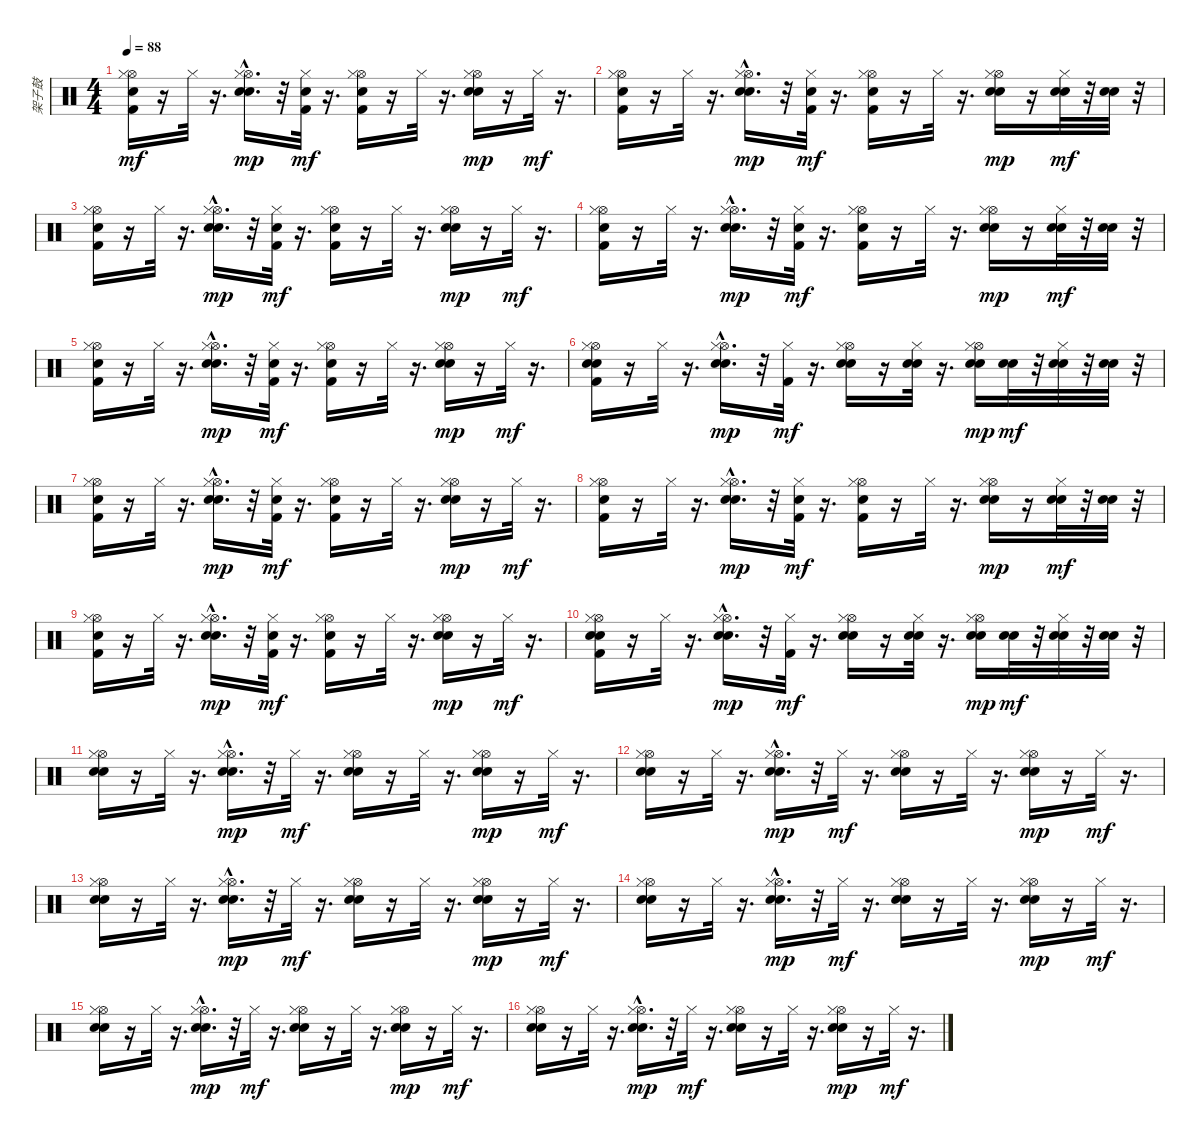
\track ("架子鼓" "架子鼓") {instrument percussion}
\staff {score}
\articulation defaults
\ts (4 4)
\tempo 88
\clef neutral
\ks c
("Hi-Hat (open)" "Hi-Hat (closed)" "Kick (hit) 2" "Snare (hit)").16{dy mf} r.16 "Hi-Hat (closed)".32 r.16{d} ("Hi-Hat (open)"{hac} "Hi-Hat (closed)" "Electric Snare (hit)" "Metronome (bell)").16{d dy mp} r.32 ("Hi-Hat (closed)" "Kick (hit) 2" "Snare (hit)").32{dy mf} r.16{d} ("Hi-Hat (open)" "Hi-Hat (closed)" "Kick (hit) 2" "Snare (hit)").16 r.16 "Hi-Hat (closed)".32 r.16{d} ("Hi-Hat (open)" "Hi-Hat (closed)" "Electric Snare (hit)" "Metronome (bell)").16{dy mp} r.16 "Hi-Hat (closed)".32{dy mf} r.16{d} |
("Hi-Hat (open)" "Hi-Hat (closed)" "Kick (hit) 2" "Snare (hit)").16 r.16 "Hi-Hat (closed)".32 r.16{d} ("Hi-Hat (open)"{hac} "Hi-Hat (closed)" "Electric Snare (hit)" "Metronome (bell)").16{d dy mp} r.32 ("Hi-Hat (closed)" "Kick (hit) 2" "Snare (hit)").32{dy mf} r.16{d} ("Hi-Hat (open)" "Hi-Hat (closed)" "Kick (hit) 2" "Snare (hit)").16 r.16 "Hi-Hat (closed)".32 r.16{d} ("Hi-Hat (open)" "Hi-Hat (closed)" "Electric Snare (hit)" "Metronome (bell)").16{dy mp} r.16 ("Hi-Hat (closed)" "Electric Snare (hit)" "Metronome (bell)").32{dy mf} r.32 ("Electric Snare (hit)" "Metronome (bell)").32 r.32 |
("Hi-Hat (open)" "Hi-Hat (closed)" "Kick (hit) 2" "Snare (hit)").16 r.16 "Hi-Hat (closed)".32 r.16{d} ("Hi-Hat (open)"{hac} "Hi-Hat (closed)" "Electric Snare (hit)" "Metronome (bell)").16{d dy mp} r.32 ("Hi-Hat (closed)" "Kick (hit) 2" "Snare (hit)").32{dy mf} r.16{d} ("Hi-Hat (open)" "Hi-Hat (closed)" "Kick (hit) 2" "Snare (hit)").16 r.16 "Hi-Hat (closed)".32 r.16{d} ("Hi-Hat (open)" "Hi-Hat (closed)" "Electric Snare (hit)" "Metronome (bell)").16{dy mp} r.16 "Hi-Hat (closed)".32{dy mf} r.16{d} |
("Hi-Hat (open)" "Hi-Hat (closed)" "Kick (hit) 2" "Snare (hit)").16 r.16 "Hi-Hat (closed)".32 r.16{d} ("Hi-Hat (open)"{hac} "Hi-Hat (closed)" "Electric Snare (hit)" "Metronome (bell)").16{d dy mp} r.32 ("Hi-Hat (closed)" "Kick (hit) 2" "Snare (hit)").32{dy mf} r.16{d} ("Hi-Hat (open)" "Hi-Hat (closed)" "Kick (hit) 2" "Snare (hit)").16 r.16 "Hi-Hat (closed)".32 r.16{d} ("Hi-Hat (open)" "Hi-Hat (closed)" "Electric Snare (hit)" "Metronome (bell)").16{dy mp} r.16 ("Hi-Hat (closed)" "Electric Snare (hit)" "Metronome (bell)").32{dy mf} r.32 ("Electric Snare (hit)" "Metronome (bell)").32 r.32 |
("Hi-Hat (open)" "Hi-Hat (closed)" "Kick (hit) 2" "Snare (hit)").16 r.16 "Hi-Hat (closed)".32 r.16{d} ("Hi-Hat (open)"{hac} "Hi-Hat (closed)" "Electric Snare (hit)" "Metronome (bell)").16{d dy mp} r.32 ("Hi-Hat (closed)" "Kick (hit) 2" "Snare (hit)").32{dy mf} r.16{d} ("Hi-Hat (open)" "Hi-Hat (closed)" "Kick (hit) 2" "Snare (hit)").16 r.16 "Hi-Hat (closed)".32 r.16{d} ("Hi-Hat (open)" "Hi-Hat (closed)" "Electric Snare (hit)" "Metronome (bell)").16{dy mp} r.16 "Hi-Hat (closed)".32{dy mf} r.16{d} |
("Hi-Hat (open)" "Hi-Hat (closed)" "Electric Snare (hit)" "Electric Snare (hit)" "Kick (hit) 2").16 r.16 "Hi-Hat (closed)".32 r.16{d} ("Hi-Hat (open)"{hac} "Hi-Hat (closed)" "Electric Snare (hit)" "Metronome (bell)").16{d dy mp} r.32 ("Hi-Hat (closed)" "Kick (hit) 2").32{dy mf} r.16{d} ("Hi-Hat (open)" "Hi-Hat (closed)" "Electric Snare (hit)" "Metronome (bell)").16 r.16 ("Hi-Hat (closed)" "Electric Snare (hit)" "Metronome (bell)").32 r.16{d} ("Hi-Hat (open)" "Hi-Hat (closed)" "Electric Snare (hit)" "Metronome (bell)").16{dy mp} ("Electric Snare (hit)" "Metronome (bell)").32{dy mf} r.32 ("Hi-Hat (closed)" "Electric Snare (hit)" "Metronome (bell)").32 r.32 ("Electric Snare (hit)" "Metronome (bell)").32 r.32 |
("Hi-Hat (open)" "Hi-Hat (closed)" "Kick (hit) 2" "Snare (hit)").16 r.16 "Hi-Hat (closed)".32 r.16{d} ("Hi-Hat (open)"{hac} "Hi-Hat (closed)" "Electric Snare (hit)" "Metronome (bell)").16{d dy mp} r.32 ("Hi-Hat (closed)" "Kick (hit) 2" "Snare (hit)").32{dy mf} r.16{d} ("Hi-Hat (open)" "Hi-Hat (closed)" "Kick (hit) 2" "Snare (hit)").16 r.16 "Hi-Hat (closed)".32 r.16{d} ("Hi-Hat (open)" "Hi-Hat (closed)" "Electric Snare (hit)" "Metronome (bell)").16{dy mp} r.16 "Hi-Hat (closed)".32{dy mf} r.16{d} |
("Hi-Hat (open)" "Hi-Hat (closed)" "Kick (hit) 2" "Snare (hit)").16 r.16 "Hi-Hat (closed)".32 r.16{d} ("Hi-Hat (open)"{hac} "Hi-Hat (closed)" "Electric Snare (hit)" "Metronome (bell)").16{d dy mp} r.32 ("Hi-Hat (closed)" "Kick (hit) 2" "Snare (hit)").32{dy mf} r.16{d} ("Hi-Hat (open)" "Hi-Hat (closed)" "Kick (hit) 2" "Snare (hit)").16 r.16 "Hi-Hat (closed)".32 r.16{d} ("Hi-Hat (open)" "Hi-Hat (closed)" "Electric Snare (hit)" "Metronome (bell)").16{dy mp} r.16 ("Hi-Hat (closed)" "Electric Snare (hit)" "Metronome (bell)").32{dy mf} r.32 ("Electric Snare (hit)" "Metronome (bell)").32 r.32 |
("Hi-Hat (open)" "Hi-Hat (closed)" "Kick (hit) 2" "Snare (hit)").16 r.16 "Hi-Hat (closed)".32 r.16{d} ("Hi-Hat (open)"{hac} "Hi-Hat (closed)" "Electric Snare (hit)" "Metronome (bell)").16{d dy mp} r.32 ("Hi-Hat (closed)" "Kick (hit) 2" "Snare (hit)").32{dy mf} r.16{d} ("Hi-Hat (open)" "Hi-Hat (closed)" "Kick (hit) 2" "Snare (hit)").16 r.16 "Hi-Hat (closed)".32 r.16{d} ("Hi-Hat (open)" "Hi-Hat (closed)" "Electric Snare (hit)" "Metronome (bell)").16{dy mp} r.16 "Hi-Hat (closed)".32{dy mf} r.16{d} |
("Hi-Hat (open)" "Hi-Hat (closed)" "Electric Snare (hit)" "Electric Snare (hit)" "Kick (hit) 2").16 r.16 "Hi-Hat (closed)".32 r.16{d} ("Hi-Hat (open)"{hac} "Hi-Hat (closed)" "Electric Snare (hit)" "Metronome (bell)").16{d dy mp} r.32 ("Hi-Hat (closed)" "Kick (hit) 2").32{dy mf} r.16{d} ("Hi-Hat (open)" "Hi-Hat (closed)" "Electric Snare (hit)" "Metronome (bell)").16 r.16 ("Hi-Hat (closed)" "Electric Snare (hit)" "Metronome (bell)").32 r.16{d} ("Hi-Hat (open)" "Hi-Hat (closed)" "Electric Snare (hit)" "Metronome (bell)").16{dy mp} ("Electric Snare (hit)" "Metronome (bell)").32{dy mf} r.32 ("Hi-Hat (closed)" "Electric Snare (hit)" "Metronome (bell)").32 r.32 ("Electric Snare (hit)" "Metronome (bell)").32 r.32 |
("Hi-Hat (open)" "Hi-Hat (closed)" "Electric Snare (hit)" "Electric Snare (hit)").16 r.16 "Hi-Hat (closed)".32 r.16{d} ("Hi-Hat (open)"{hac} "Hi-Hat (closed)" "Electric Snare (hit)" "Metronome (bell)").16{d dy mp} r.32 "Hi-Hat (closed)".32{dy mf} r.16{d} ("Hi-Hat (open)" "Hi-Hat (closed)" "Electric Snare (hit)" "Electric Snare (hit)").16 r.16 "Hi-Hat (closed)".32 r.16{d} ("Hi-Hat (open)" "Hi-Hat (closed)" "Electric Snare (hit)" "Metronome (bell)").16{dy mp} r.16 "Hi-Hat (closed)".32{dy mf} r.16{d} |
("Hi-Hat (open)" "Hi-Hat (closed)" "Electric Snare (hit)" "Electric Snare (hit)").16 r.16 "Hi-Hat (closed)".32 r.16{d} ("Hi-Hat (open)"{hac} "Hi-Hat (closed)" "Electric Snare (hit)" "Metronome (bell)").16{d dy mp} r.32 "Hi-Hat (closed)".32{dy mf} r.16{d} ("Hi-Hat (open)" "Hi-Hat (closed)" "Electric Snare (hit)" "Electric Snare (hit)").16 r.16 "Hi-Hat (closed)".32 r.16{d} ("Hi-Hat (open)" "Hi-Hat (closed)" "Electric Snare (hit)" "Metronome (bell)").16{dy mp} r.16 "Hi-Hat (closed)".32{dy mf} r.16{d} |
("Hi-Hat (open)" "Hi-Hat (closed)" "Electric Snare (hit)" "Electric Snare (hit)").16 r.16 "Hi-Hat (closed)".32 r.16{d} ("Hi-Hat (open)"{hac} "Hi-Hat (closed)" "Electric Snare (hit)" "Metronome (bell)").16{d dy mp} r.32 "Hi-Hat (closed)".32{dy mf} r.16{d} ("Hi-Hat (open)" "Hi-Hat (closed)" "Electric Snare (hit)" "Electric Snare (hit)").16 r.16 "Hi-Hat (closed)".32 r.16{d} ("Hi-Hat (open)" "Hi-Hat (closed)" "Electric Snare (hit)" "Metronome (bell)").16{dy mp} r.16 "Hi-Hat (closed)".32{dy mf} r.16{d} |
("Hi-Hat (open)" "Hi-Hat (closed)" "Electric Snare (hit)" "Electric Snare (hit)").16 r.16 "Hi-Hat (closed)".32 r.16{d} ("Hi-Hat (open)"{hac} "Hi-Hat (closed)" "Electric Snare (hit)" "Metronome (bell)").16{d dy mp} r.32 "Hi-Hat (closed)".32{dy mf} r.16{d} ("Hi-Hat (open)" "Hi-Hat (closed)" "Electric Snare (hit)" "Electric Snare (hit)").16 r.16 "Hi-Hat (closed)".32 r.16{d} ("Hi-Hat (open)" "Hi-Hat (closed)" "Electric Snare (hit)" "Metronome (bell)").16{dy mp} r.16 "Hi-Hat (closed)".32{dy mf} r.16{d} |
("Hi-Hat (open)" "Hi-Hat (closed)" "Electric Snare (hit)" "Electric Snare (hit)").16 r.16 "Hi-Hat (closed)".32 r.16{d} ("Hi-Hat (open)"{hac} "Hi-Hat (closed)" "Electric Snare (hit)" "Metronome (bell)").16{d dy mp} r.32 "Hi-Hat (closed)".32{dy mf} r.16{d} ("Hi-Hat (open)" "Hi-Hat (closed)" "Electric Snare (hit)" "Electric Snare (hit)").16 r.16 "Hi-Hat (closed)".32 r.16{d} ("Hi-Hat (open)" "Hi-Hat (closed)" "Electric Snare (hit)" "Metronome (bell)").16{dy mp} r.16 "Hi-Hat (closed)".32{dy mf} r.16{d} |
("Hi-Hat (open)" "Hi-Hat (closed)" "Electric Snare (hit)" "Electric Snare (hit)").16 r.16 "Hi-Hat (closed)".32 r.16{d} ("Hi-Hat (open)"{hac} "Hi-Hat (closed)" "Electric Snare (hit)" "Metronome (bell)").16{d dy mp} r.32 "Hi-Hat (closed)".32{dy mf} r.16{d} ("Hi-Hat (open)" "Hi-Hat (closed)" "Electric Snare (hit)" "Electric Snare (hit)").16 r.16 "Hi-Hat (closed)".32 r.16{d} ("Hi-Hat (open)" "Hi-Hat (closed)" "Electric Snare (hit)" "Metronome (bell)").16{dy mp} r.16 "Hi-Hat (closed)".32{dy mf} r.16{d}
